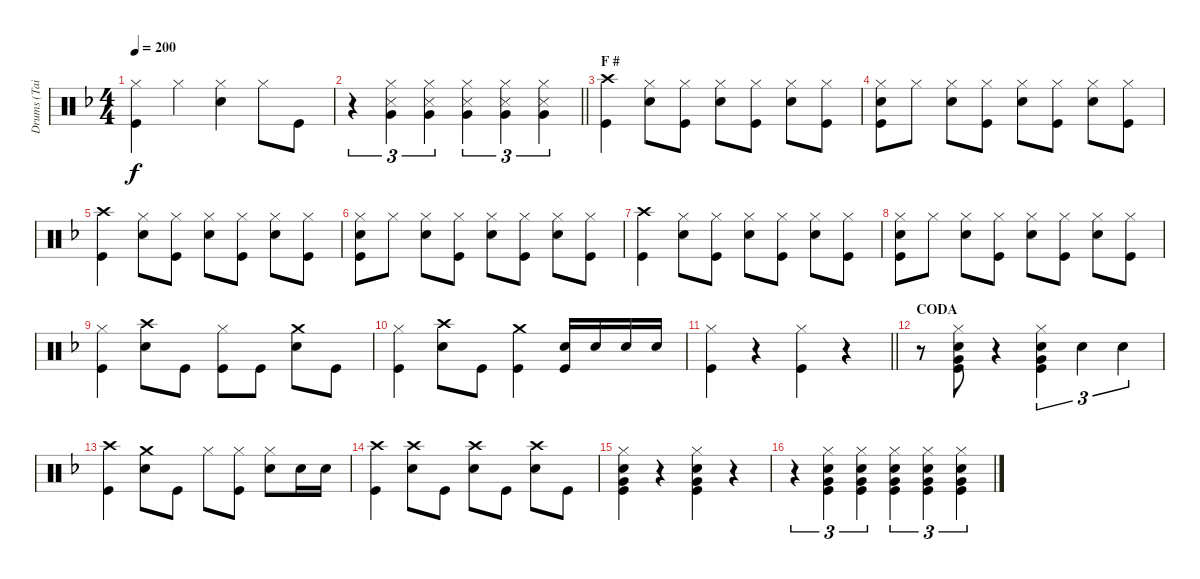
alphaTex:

\track ("Drums (Tainaka Ritsu)" "Drums (Tai") {instrument percussion}
\staff {score}
\articulation defaults
\ts (4 4)
\tempo 200
\clef neutral
\ks f
("Hi-Hat (closed)" "Kick (hit)").4{dy f} "Hi-Hat (closed)".4 ("Hi-Hat (closed)" "Snare (hit) 2").4 "Hi-Hat (closed)".8 "Kick (hit)".8 |
\barLineRight lightlight
r.4{tu (3 2)} ("Hi-Hat (closed)" "Snare (side stick) 3" "Very Low Tom (hit)").4{tu (3 2)} ("Hi-Hat (closed)" "Snare (side stick) 3" "Very Low Tom (hit)").4{tu (3 2)} ("Hi-Hat (closed)" "Snare (side stick) 3" "Very Low Tom (hit)").4{tu (3 2)} ("Hi-Hat (closed)" "Snare (side stick) 3" "Very Low Tom (hit)").4{tu (3 2)} ("Hi-Hat (closed)" "Snare (side stick) 3" "Very Low Tom (hit)").4{tu (3 2)} |
\section ("" "F #")
("Crash high (hit)" "Kick (hit)").4 ("Hi-Hat (closed)" "Snare (hit) 2").8 ("Hi-Hat (closed)" "Kick (hit)").8 ("Hi-Hat (closed)" "Snare (hit) 2").8 ("Hi-Hat (closed)" "Kick (hit)").8 ("Hi-Hat (closed)" "Snare (hit) 2").8 ("Hi-Hat (closed)" "Kick (hit)").8 |
("Hi-Hat (closed)" "Snare (hit) 2" "Kick (hit)").8 "Hi-Hat (closed)".8 ("Hi-Hat (closed)" "Snare (hit) 2").8 ("Hi-Hat (closed)" "Kick (hit)").8 ("Hi-Hat (closed)" "Snare (hit) 2").8 ("Hi-Hat (closed)" "Kick (hit)").8 ("Hi-Hat (closed)" "Snare (hit) 2").8 ("Hi-Hat (closed)" "Kick (hit)").8 |
("Crash high (hit)" "Kick (hit)").4 ("Hi-Hat (closed)" "Snare (hit) 2").8 ("Hi-Hat (closed)" "Kick (hit)").8 ("Hi-Hat (closed)" "Snare (hit) 2").8 ("Hi-Hat (closed)" "Kick (hit)").8 ("Hi-Hat (closed)" "Snare (hit) 2").8 ("Hi-Hat (closed)" "Kick (hit)").8 |
("Hi-Hat (closed)" "Snare (hit) 2" "Kick (hit)").8 "Hi-Hat (closed)".8 ("Hi-Hat (closed)" "Snare (hit) 2").8 ("Hi-Hat (closed)" "Kick (hit)").8 ("Hi-Hat (closed)" "Snare (hit) 2").8 ("Hi-Hat (closed)" "Kick (hit)").8 ("Hi-Hat (closed)" "Snare (hit) 2").8 ("Hi-Hat (closed)" "Kick (hit)").8 |
("Crash high (hit)" "Kick (hit)").4 ("Hi-Hat (closed)" "Snare (hit) 2").8 ("Hi-Hat (closed)" "Kick (hit)").8 ("Hi-Hat (closed)" "Snare (hit) 2").8 ("Hi-Hat (closed)" "Kick (hit)").8 ("Hi-Hat (closed)" "Snare (hit) 2").8 ("Hi-Hat (closed)" "Kick (hit)").8 |
("Hi-Hat (closed)" "Snare (hit) 2" "Kick (hit)").8 "Hi-Hat (closed)".8 ("Hi-Hat (closed)" "Snare (hit) 2").8 ("Hi-Hat (closed)" "Kick (hit)").8 ("Hi-Hat (closed)" "Snare (hit) 2").8 ("Hi-Hat (closed)" "Kick (hit)").8 ("Hi-Hat (closed)" "Snare (hit) 2").8 ("Hi-Hat (closed)" "Kick (hit)").8 |
("Hi-Hat (closed)" "Kick (hit)").4 ("Crash high (hit)" "Snare (hit) 2").8 "Kick (hit)".8 ("Hi-Hat (closed)" "Kick (hit)").8 "Kick (hit)".8 ("Crash medium (hit)" "Snare (hit) 2").8 "Kick (hit)".8 |
("Hi-Hat (closed)" "Kick (hit)").4 ("Crash high (hit)" "Snare (hit) 2").8 "Kick (hit)".8 ("Crash medium (hit)" "Kick (hit)").4 ("Snare (hit) 2" "Kick (hit)").16 "Snare (hit) 2".16 "Snare (hit) 2".16 "Snare (hit) 2".16 |
\barLineRight lightlight
("Hi-Hat (closed)" "Kick (hit)").4 r.4 ("Hi-Hat (closed)" "Kick (hit)").4 r.4 |
\section ("" "CODA")
r.8 ("Hi-Hat (closed)" "Snare (hit) 2" "Very Low Tom (hit)" "Kick (hit)").8 r.4 ("Hi-Hat (closed)" "Snare (hit) 2" "Very Low Tom (hit)" "Kick (hit)").4{tu (3 2)} "Snare (hit) 2".4{tu (3 2)} "Snare (hit) 2".4{tu (3 2)} |
("Crash high (hit)" "Kick (hit)").4 ("Crash medium (hit)" "Snare (hit) 2").8 "Kick (hit)".8 "Hi-Hat (closed)".8 ("Hi-Hat (closed)" "Kick (hit)").8 ("Hi-Hat (closed)" "Snare (hit) 2").8 "Snare (hit) 2".16 "Snare (hit) 2".16 |
("Crash high (hit)" "Kick (hit)").4 ("Crash high (hit)" "Snare (hit) 2").8 "Kick (hit)".8 ("Crash high (hit)" "Snare (hit) 2").8 "Kick (hit)".8 ("Crash high (hit)" "Snare (hit) 2").8 "Kick (hit)".8 |
("Hi-Hat (closed)" "Snare (hit) 2" "Very Low Tom (hit)" "Kick (hit)").4 r.4 ("Hi-Hat (closed)" "Snare (hit) 2" "Very Low Tom (hit)" "Kick (hit)").4 r.4 |
r.4{tu (3 2)} ("Hi-Hat (closed)" "Snare (hit) 2" "Very Low Tom (hit)" "Kick (hit)").4{tu (3 2)} ("Hi-Hat (closed)" "Snare (hit) 2" "Very Low Tom (hit)" "Kick (hit)").4{tu (3 2)} ("Hi-Hat (closed)" "Snare (hit) 2" "Very Low Tom (hit)" "Kick (hit)").4{tu (3 2)} ("Hi-Hat (closed)" "Snare (hit) 2" "Very Low Tom (hit)" "Kick (hit)").4{tu (3 2)} ("Hi-Hat (closed)" "Snare (hit) 2" "Very Low Tom (hit)" "Kick (hit)").4{tu (3 2)}
